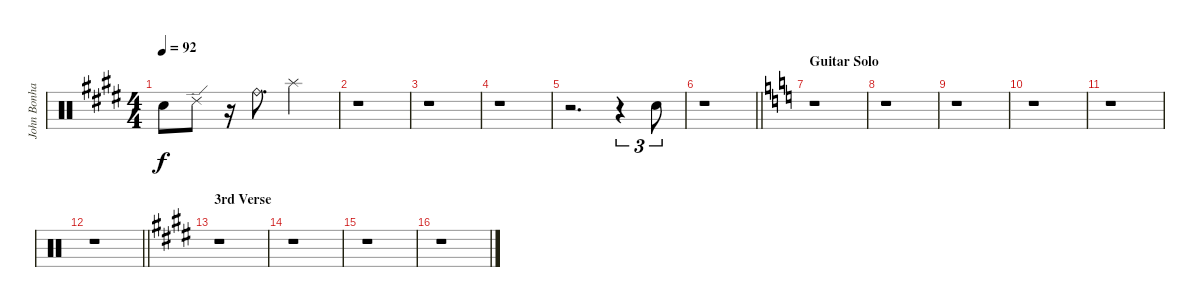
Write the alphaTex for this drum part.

\track ("John Bonham Percusive Kit" "John Bonha") {instrument percussion}
\staff {score}
\articulation defaults
\ts (4 4)
\tempo 92
\clef neutral
\ks e "Snare (hit)"{t}.8{dy f} "Ride (edge) 2".8
r.16 "Ride (bell)".8{d} "Splash (hit)".2 |
r.1 |
r.1 |
r.1 |
r.2{d} r.4{tu (3 2)} "Snare (hit) 2".8{tu (3 2)} |
\barLineRight lightlight
r.1 |
\section ("" "Guitar Solo")
\ks c
r.1 |
r.1 |
r.1 |
r.1 |
r.1 |
\barLineRight lightlight
r.1 |
\section ("" "3rd Verse")
\ks e
r.1 |
r.1 |
r.1 |
r.1
